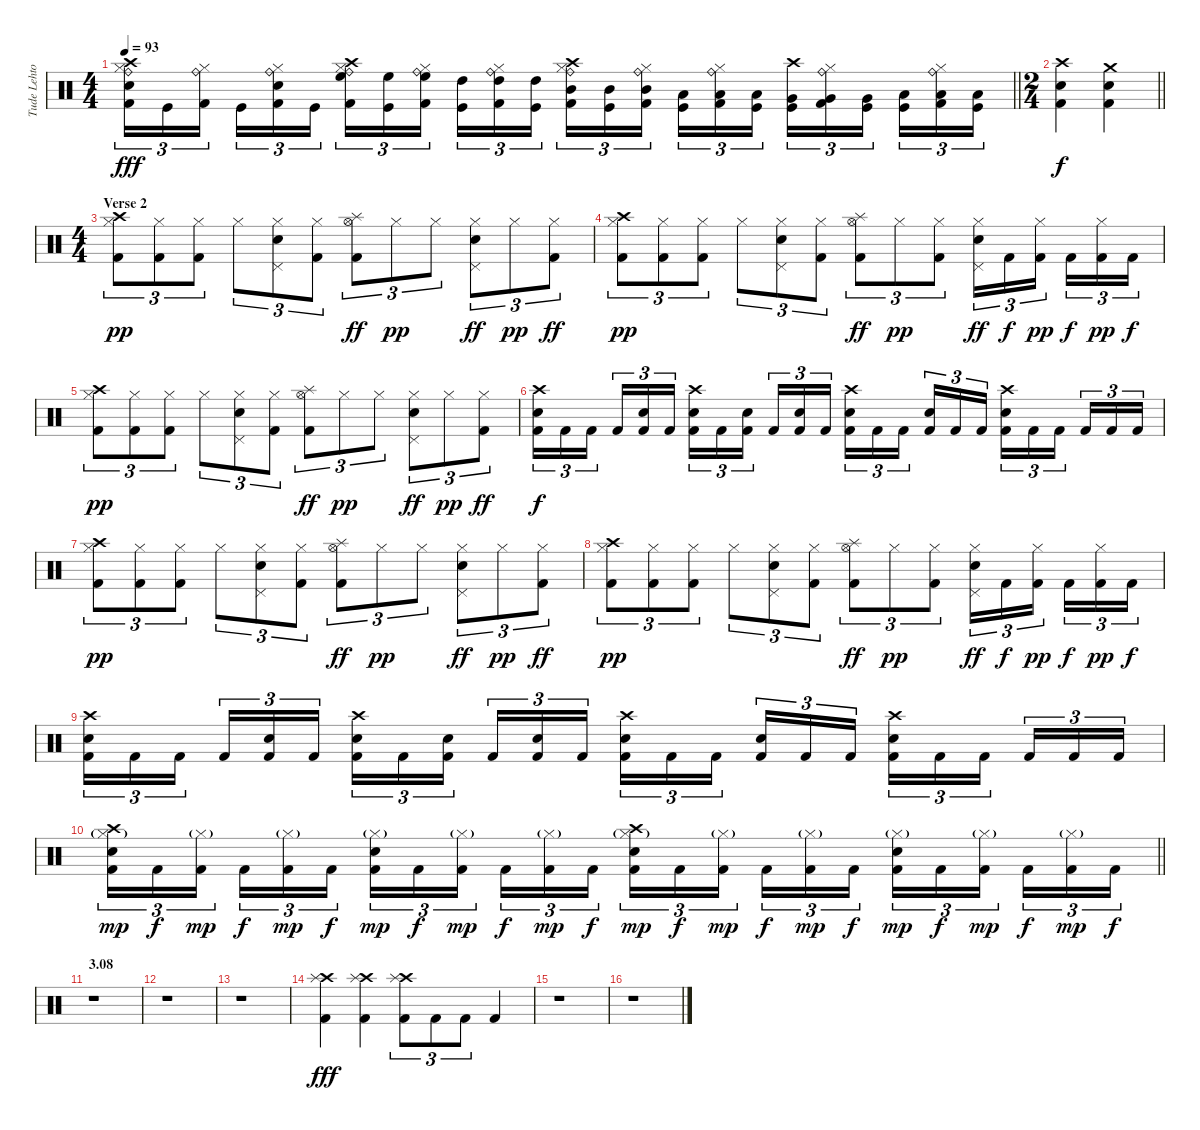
\track ("Tude Lehtonen" "Tude Lehto") {instrument percussion}
\staff {score}
\articulation defaults
\ts (4 4)
\tempo 93
\clef neutral
\barLineRight lightlight
\ks c
("Crash high (hit)" "Hi-Hat (closed)" "Ride (bell)" "Electric Snare (hit)" "Kick (hit) 2").16{tu (3 2) dy fff} "Kick (hit)".16{tu (3 2)} ("Hi-Hat (closed)" "Ride (bell)" "Kick (hit) 2").16{tu (3 2)} "Kick (hit)".16{tu (3 2)} ("Hi-Hat (closed)" "Ride (bell)" "Snare (hit) 2" "Kick (hit) 2").16{tu (3 2)} "Kick (hit)".16{tu (3 2)} ("Crash high (hit)" "Hi-Hat (closed)" "Ride (bell)" "High Floor Tom (hit)" "Kick (hit) 2").16{tu (3 2)} ("High Floor Tom (hit)" "Kick (hit)").16{tu (3 2)} ("Hi-Hat (closed)" "Ride (bell)" "High Floor Tom (hit)" "Kick (hit) 2").16{tu (3 2)} ("High Tom (hit)" "Kick (hit)").16{tu (3 2)} ("Hi-Hat (closed)" "Ride (bell)" "High Tom (hit)" "Kick (hit) 2").16{tu (3 2)} ("High Tom (hit)" "Kick (hit)").16{tu (3 2)} ("Crash high (hit)" "Hi-Hat (closed)" "Ride (bell)" "Mid Tom (hit)" "Kick (hit) 2").16{tu (3 2)} ("Mid Tom (hit)" "Kick (hit)").16{tu (3 2)} ("Hi-Hat (closed)" "Ride (bell)" "Mid Tom (hit)" "Kick (hit) 2").16{tu (3 2)} ("Low Tom (hit)" "Kick (hit)").16{tu (3 2)} ("Hi-Hat (closed)" "Ride (bell)" "Low Tom (hit)" "Kick (hit) 2").16{tu (3 2)} ("Low Tom (hit)" "Kick (hit)").16{tu (3 2)} ("Crash high (hit)" "Very Low Tom (hit)" "Kick (hit)").16{tu (3 2)} ("Hi-Hat (closed)" "Ride (bell)" "Very Low Tom (hit)" "Kick (hit) 2").16{tu (3 2)} ("Very Low Tom (hit)" "Kick (hit)").16{tu (3 2)} ("Low Floor Tom (hit)" "Kick (hit)").16{tu (3 2)} ("Hi-Hat (closed)" "Ride (bell)" "Low Floor Tom (hit)" "Kick (hit) 2").16{tu (3 2)} ("Low Floor Tom (hit)" "Kick (hit)").16{tu (3 2)} |
\ts (2 4)
\barLineRight lightlight
("Crash high (hit)" "Electric Snare (hit)" "Kick (hit) 2").4{dy f} ("Crash medium (hit)" "Electric Snare (hit)" "Kick (hit) 2").4 |
\ts (4 4)
\section ("" "Verse 2")
("Crash high (hit)" "Hi-Hat (closed)" "Kick (hit) 2").8{tu (3 2) dy pp} ("Hi-Hat (closed)" "Kick (hit) 2").8{tu (3 2)} ("Hi-Hat (closed)" "Kick (hit) 2").8{tu (3 2)} "Hi-Hat (closed)".8{tu (3 2)} ("Pedal Hi-Hat (hit)" "Hi-Hat (closed)" "Electric Snare (hit)").8{tu (3 2)} ("Hi-Hat (closed)" "Kick (hit) 2").8{tu (3 2)} ("Splash (hit)" "Hi-Hat (open)" "Kick (hit) 2").8{tu (3 2) dy ff} "Hi-Hat (closed)".8{tu (3 2) dy pp} "Hi-Hat (closed)".8{tu (3 2)} ("Pedal Hi-Hat (hit)" "Hi-Hat (closed)" "Electric Snare (hit)").8{tu (3 2) dy ff} "Hi-Hat (closed)".8{tu (3 2) dy pp} ("Hi-Hat (closed)" "Kick (hit) 2").8{tu (3 2) dy ff} |
("Crash high (hit)" "Hi-Hat (closed)" "Kick (hit) 2").8{tu (3 2) dy pp} ("Hi-Hat (closed)" "Kick (hit) 2").8{tu (3 2)} ("Hi-Hat (closed)" "Kick (hit) 2").8{tu (3 2)} "Hi-Hat (closed)".8{tu (3 2)} ("Pedal Hi-Hat (hit)" "Hi-Hat (closed)" "Electric Snare (hit)").8{tu (3 2)} ("Hi-Hat (closed)" "Kick (hit) 2").8{tu (3 2)} ("Splash (hit)" "Hi-Hat (open)" "Kick (hit) 2").8{tu (3 2) dy ff} "Hi-Hat (closed)".8{tu (3 2) dy pp} ("Hi-Hat (closed)" "Kick (hit) 2").8{tu (3 2)} ("Pedal Hi-Hat (hit)" "Hi-Hat (closed)" "Electric Snare (hit)").16{tu (3 2) dy ff} "Kick (hit) 2".16{tu (3 2) dy f} ("Hi-Hat (closed)" "Kick (hit) 2").16{tu (3 2) dy pp} "Kick (hit) 2".16{tu (3 2) dy f} ("Hi-Hat (closed)" "Kick (hit) 2").16{tu (3 2) dy pp} "Kick (hit) 2".16{tu (3 2) dy f} |
("Crash high (hit)" "Hi-Hat (closed)" "Kick (hit) 2").8{tu (3 2) dy pp} ("Hi-Hat (closed)" "Kick (hit) 2").8{tu (3 2)} ("Hi-Hat (closed)" "Kick (hit) 2").8{tu (3 2)} "Hi-Hat (closed)".8{tu (3 2)} ("Pedal Hi-Hat (hit)" "Hi-Hat (closed)" "Electric Snare (hit)").8{tu (3 2)} ("Hi-Hat (closed)" "Kick (hit) 2").8{tu (3 2)} ("Splash (hit)" "Hi-Hat (open)" "Kick (hit) 2").8{tu (3 2) dy ff} "Hi-Hat (closed)".8{tu (3 2) dy pp} "Hi-Hat (closed)".8{tu (3 2)} ("Pedal Hi-Hat (hit)" "Hi-Hat (closed)" "Electric Snare (hit)").8{tu (3 2) dy ff} "Hi-Hat (closed)".8{tu (3 2) dy pp} ("Hi-Hat (closed)" "Kick (hit) 2").8{tu (3 2) dy ff} |
("Crash high (hit)" "Electric Snare (hit)" "Kick (hit) 2").16{tu (3 2) dy f} "Kick (hit) 2".16{tu (3 2)} "Kick (hit) 2".16{tu (3 2)} "Kick (hit) 2".16{tu (3 2)} ("Electric Snare (hit)" "Kick (hit) 2").16{tu (3 2)} "Kick (hit) 2".16{tu (3 2)} ("Crash high (hit)" "Electric Snare (hit)" "Kick (hit) 2").16{tu (3 2)} "Kick (hit) 2".16{tu (3 2)} ("Electric Snare (hit)" "Kick (hit) 2").16{tu (3 2)} "Kick (hit) 2".16{tu (3 2)} ("Electric Snare (hit)" "Kick (hit) 2").16{tu (3 2)} "Kick (hit) 2".16{tu (3 2)} ("Crash high (hit)" "Electric Snare (hit)" "Kick (hit) 2").16{tu (3 2)} "Kick (hit) 2".16{tu (3 2)} "Kick (hit) 2".16{tu (3 2)} ("Electric Snare (hit)" "Kick (hit) 2").16{tu (3 2)} "Kick (hit) 2".16{tu (3 2)} "Kick (hit) 2".16{tu (3 2)} ("Crash high (hit)" "Electric Snare (hit)" "Kick (hit) 2").16{tu (3 2)} "Kick (hit) 2".16{tu (3 2)} "Kick (hit) 2".16{tu (3 2)} "Kick (hit) 2".16{tu (3 2)} "Kick (hit) 2".16{tu (3 2)} "Kick (hit) 2".16{tu (3 2)} |
("Crash high (hit)" "Hi-Hat (closed)" "Kick (hit) 2").8{tu (3 2) dy pp} ("Hi-Hat (closed)" "Kick (hit) 2").8{tu (3 2)} ("Hi-Hat (closed)" "Kick (hit) 2").8{tu (3 2)} "Hi-Hat (closed)".8{tu (3 2)} ("Pedal Hi-Hat (hit)" "Hi-Hat (closed)" "Electric Snare (hit)").8{tu (3 2)} ("Hi-Hat (closed)" "Kick (hit) 2").8{tu (3 2)} ("Splash (hit)" "Hi-Hat (open)" "Kick (hit) 2").8{tu (3 2) dy ff} "Hi-Hat (closed)".8{tu (3 2) dy pp} "Hi-Hat (closed)".8{tu (3 2)} ("Pedal Hi-Hat (hit)" "Hi-Hat (closed)" "Electric Snare (hit)").8{tu (3 2) dy ff} "Hi-Hat (closed)".8{tu (3 2) dy pp} ("Hi-Hat (closed)" "Kick (hit) 2").8{tu (3 2) dy ff} |
("Crash high (hit)" "Hi-Hat (closed)" "Kick (hit) 2").8{tu (3 2) dy pp} ("Hi-Hat (closed)" "Kick (hit) 2").8{tu (3 2)} ("Hi-Hat (closed)" "Kick (hit) 2").8{tu (3 2)} "Hi-Hat (closed)".8{tu (3 2)} ("Pedal Hi-Hat (hit)" "Hi-Hat (closed)" "Electric Snare (hit)").8{tu (3 2)} ("Hi-Hat (closed)" "Kick (hit) 2").8{tu (3 2)} ("Splash (hit)" "Hi-Hat (open)" "Kick (hit) 2").8{tu (3 2) dy ff} "Hi-Hat (closed)".8{tu (3 2) dy pp} ("Hi-Hat (closed)" "Kick (hit) 2").8{tu (3 2)} ("Pedal Hi-Hat (hit)" "Hi-Hat (closed)" "Electric Snare (hit)").16{tu (3 2) dy ff} "Kick (hit) 2".16{tu (3 2) dy f} ("Hi-Hat (closed)" "Kick (hit) 2").16{tu (3 2) dy pp} "Kick (hit) 2".16{tu (3 2) dy f} ("Hi-Hat (closed)" "Kick (hit) 2").16{tu (3 2) dy pp} "Kick (hit) 2".16{tu (3 2) dy f} |
("Crash high (hit)" "Electric Snare (hit)" "Kick (hit) 2").16{tu (3 2)} "Kick (hit) 2".16{tu (3 2)} "Kick (hit) 2".16{tu (3 2)} "Kick (hit) 2".16{tu (3 2)} ("Electric Snare (hit)" "Kick (hit) 2").16{tu (3 2)} "Kick (hit) 2".16{tu (3 2)} ("Crash high (hit)" "Electric Snare (hit)" "Kick (hit) 2").16{tu (3 2)} "Kick (hit) 2".16{tu (3 2)} ("Electric Snare (hit)" "Kick (hit) 2").16{tu (3 2)} "Kick (hit) 2".16{tu (3 2)} ("Electric Snare (hit)" "Kick (hit) 2").16{tu (3 2)} "Kick (hit) 2".16{tu (3 2)} ("Crash high (hit)" "Electric Snare (hit)" "Kick (hit) 2").16{tu (3 2)} "Kick (hit) 2".16{tu (3 2)} "Kick (hit) 2".16{tu (3 2)} ("Electric Snare (hit)" "Kick (hit) 2").16{tu (3 2)} "Kick (hit) 2".16{tu (3 2)} "Kick (hit) 2".16{tu (3 2)} ("Crash high (hit)" "Electric Snare (hit)" "Kick (hit) 2").16{tu (3 2)} "Kick (hit) 2".16{tu (3 2)} "Kick (hit) 2".16{tu (3 2)} "Kick (hit) 2".16{tu (3 2)} "Kick (hit) 2".16{tu (3 2)} "Kick (hit) 2".16{tu (3 2)} |
\barLineRight lightlight
("Crash high (hit)" "Hi-Hat (closed)"{g} "Electric Snare (hit)" "Kick (hit) 2").16{tu (3 2) dy mp} "Kick (hit) 2".16{tu (3 2) dy f} ("Hi-Hat (closed)"{g} "Kick (hit) 2").16{tu (3 2) dy mp} "Kick (hit) 2".16{tu (3 2) dy f} ("Hi-Hat (closed)"{g} "Kick (hit) 2").16{tu (3 2) dy mp} "Kick (hit) 2".16{tu (3 2) dy f} ("Hi-Hat (closed)"{g} "Electric Snare (hit)" "Kick (hit) 2").16{tu (3 2) dy mp} "Kick (hit) 2".16{tu (3 2) dy f} ("Hi-Hat (closed)"{g} "Kick (hit) 2").16{tu (3 2) dy mp} "Kick (hit) 2".16{tu (3 2) dy f} ("Hi-Hat (closed)"{g} "Kick (hit) 2").16{tu (3 2) dy mp} "Kick (hit) 2".16{tu (3 2) dy f} ("Crash high (hit)" "Hi-Hat (closed)"{g} "Electric Snare (hit)" "Kick (hit) 2").16{tu (3 2) dy mp} "Kick (hit) 2".16{tu (3 2) dy f} ("Hi-Hat (closed)"{g} "Kick (hit) 2").16{tu (3 2) dy mp} "Kick (hit) 2".16{tu (3 2) dy f} ("Hi-Hat (closed)"{g} "Kick (hit) 2").16{tu (3 2) dy mp} "Kick (hit) 2".16{tu (3 2) dy f} ("Hi-Hat (closed)"{g} "Electric Snare (hit)" "Kick (hit) 2").16{tu (3 2) dy mp} "Kick (hit) 2".16{tu (3 2) dy f} ("Hi-Hat (closed)"{g} "Kick (hit) 2").16{tu (3 2) dy mp} "Kick (hit) 2".16{tu (3 2) dy f} ("Hi-Hat (closed)"{g} "Kick (hit) 2").16{tu (3 2) dy mp} "Kick (hit) 2".16{tu (3 2) dy f} |
\section ("" "3.08")
r.1 |
r.1 |
r.1 |
("Crash high (hit)" "Splash (hit)" "Kick (hit) 2").4{dy fff} ("Crash high (hit)" "Splash (hit)" "Kick (hit) 2").4 ("Crash high (hit)" "Splash (hit)" "Kick (hit) 2").8{tu (3 2)} "Kick (hit) 2".8{tu (3 2)} "Kick (hit) 2".8{tu (3 2)} "Kick (hit) 2".4 |
r.1 |
r.1
